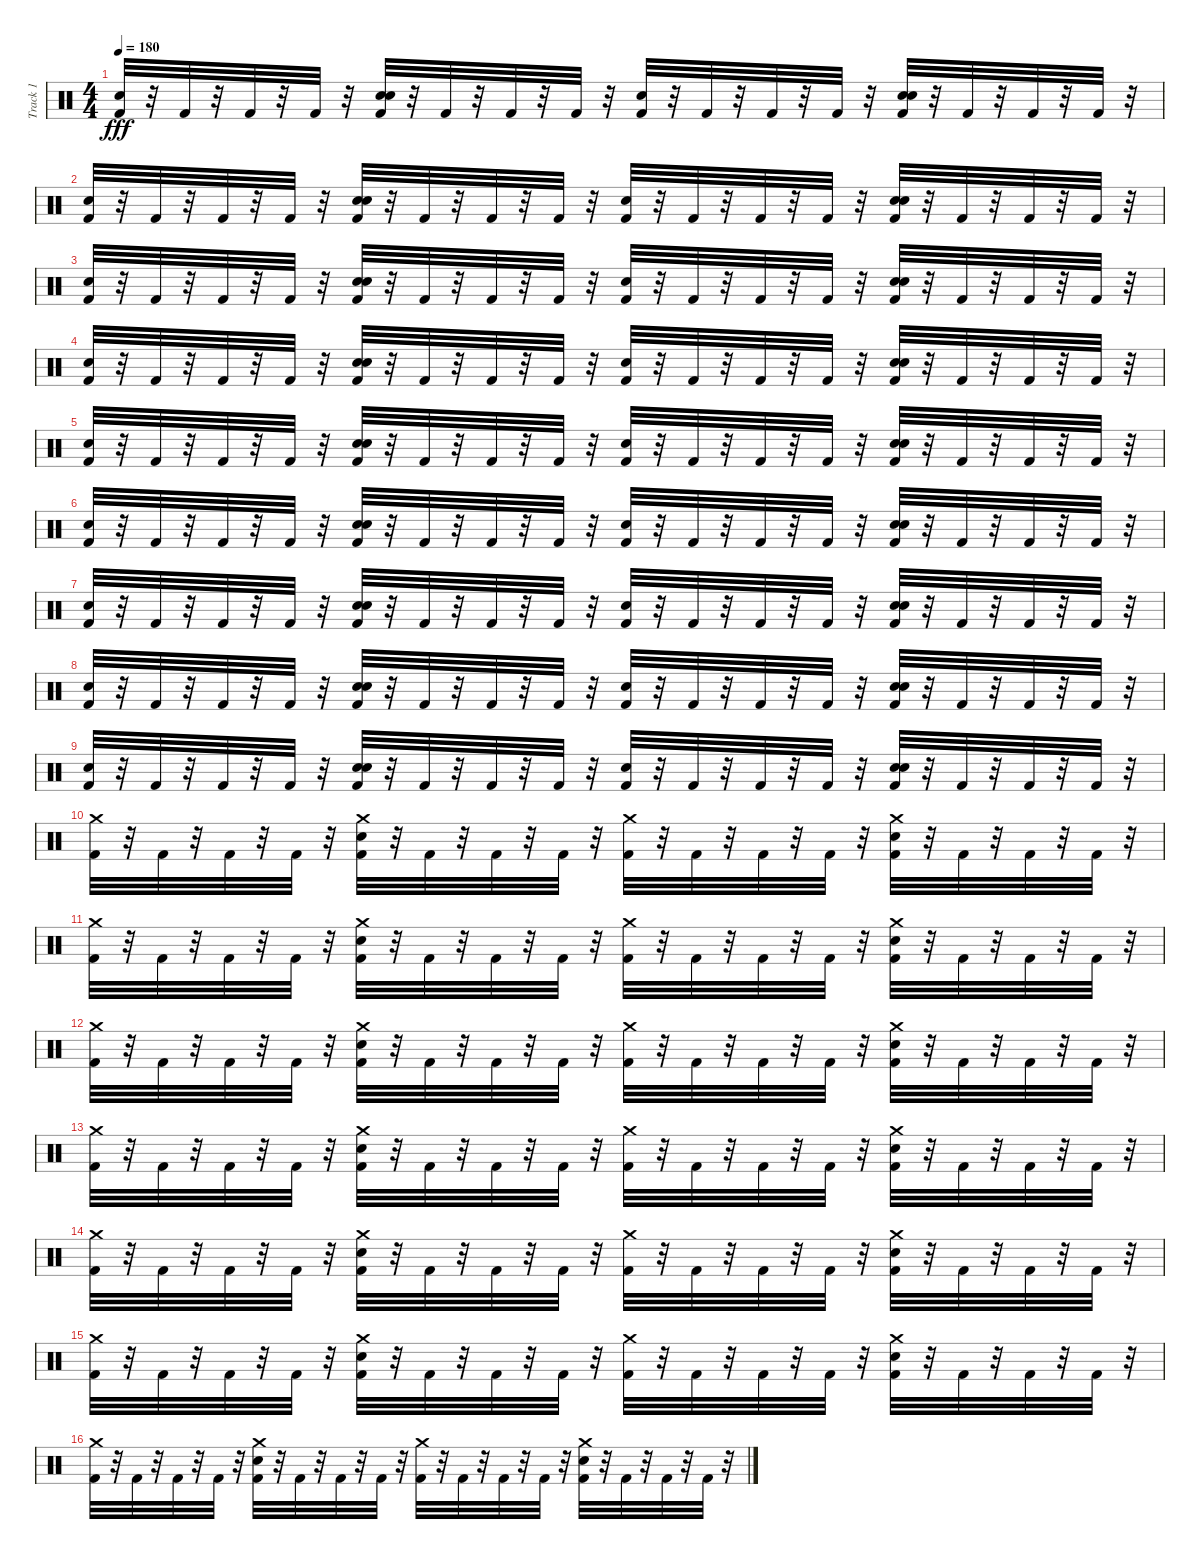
\track ("Track 1" "Track 1") {mute instrument percussion}
\staff {score}
\articulation defaults
\ts (4 4)
\tempo 180
\clef neutral
\ks c
("Kick (hit) 2" "Snare (hit)").32{dy fff} r.32 "Kick (hit) 2".32 r.32 "Kick (hit) 2".32 r.32 "Kick (hit) 2".32 r.32 ("Snare (hit)" "Kick (hit) 2" "Snare (hit) 2").32 r.32 "Kick (hit) 2".32 r.32 "Kick (hit) 2".32 r.32 "Kick (hit) 2".32 r.32 ("Kick (hit) 2" "Snare (hit)").32 r.32 "Kick (hit) 2".32 r.32 "Kick (hit) 2".32 r.32 "Kick (hit) 2".32 r.32 ("Snare (hit)" "Snare (hit) 2" "Kick (hit) 2").32 r.32 "Kick (hit) 2".32 r.32 "Kick (hit) 2".32 r.32 "Kick (hit) 2".32 r.32 |
("Kick (hit) 2" "Snare (hit)").32 r.32 "Kick (hit) 2".32 r.32 "Kick (hit) 2".32 r.32 "Kick (hit) 2".32 r.32 ("Snare (hit)" "Kick (hit) 2" "Snare (hit) 2").32 r.32 "Kick (hit) 2".32 r.32 "Kick (hit) 2".32 r.32 "Kick (hit) 2".32 r.32 ("Kick (hit) 2" "Snare (hit)").32 r.32 "Kick (hit) 2".32 r.32 "Kick (hit) 2".32 r.32 "Kick (hit) 2".32 r.32 ("Snare (hit)" "Kick (hit) 2" "Snare (hit) 2").32 r.32 "Kick (hit) 2".32 r.32 "Kick (hit) 2".32 r.32 "Kick (hit) 2".32 r.32 |
("Kick (hit) 2" "Snare (hit)").32 r.32 "Kick (hit) 2".32 r.32 "Kick (hit) 2".32 r.32 "Kick (hit) 2".32 r.32 ("Snare (hit)" "Kick (hit) 2" "Snare (hit) 2").32 r.32 "Kick (hit) 2".32 r.32 "Kick (hit) 2".32 r.32 "Kick (hit) 2".32 r.32 ("Kick (hit) 2" "Snare (hit)").32 r.32 "Kick (hit) 2".32 r.32 "Kick (hit) 2".32 r.32 "Kick (hit) 2".32 r.32 ("Snare (hit) 2" "Snare (hit)" "Kick (hit) 2").32 r.32 "Kick (hit) 2".32 r.32 "Kick (hit) 2".32 r.32 "Kick (hit) 2".32 r.32 |
("Kick (hit) 2" "Snare (hit)").32 r.32 "Kick (hit) 2".32 r.32 "Kick (hit) 2".32 r.32 "Kick (hit) 2".32 r.32 ("Snare (hit)" "Snare (hit) 2" "Kick (hit) 2").32 r.32 "Kick (hit) 2".32 r.32 "Kick (hit) 2".32 r.32 "Kick (hit) 2".32 r.32 ("Kick (hit) 2" "Snare (hit)").32 r.32 "Kick (hit) 2".32 r.32 "Kick (hit) 2".32 r.32 "Kick (hit) 2".32 r.32 ("Snare (hit) 2" "Snare (hit)" "Kick (hit) 2").32 r.32 "Kick (hit) 2".32 r.32 "Kick (hit) 2".32 r.32 "Kick (hit) 2".32 r.32 |
("Kick (hit) 2" "Snare (hit)").32 r.32 "Kick (hit) 2".32 r.32 "Kick (hit) 2".32 r.32 "Kick (hit) 2".32 r.32 ("Snare (hit)" "Kick (hit) 2" "Snare (hit) 2").32 r.32 "Kick (hit) 2".32 r.32 "Kick (hit) 2".32 r.32 "Kick (hit) 2".32 r.32 ("Kick (hit) 2" "Snare (hit)").32 r.32 "Kick (hit) 2".32 r.32 "Kick (hit) 2".32 r.32 "Kick (hit) 2".32 r.32 ("Snare (hit)" "Snare (hit) 2" "Kick (hit) 2").32 r.32 "Kick (hit) 2".32 r.32 "Kick (hit) 2".32 r.32 "Kick (hit) 2".32 r.32 |
("Kick (hit) 2" "Snare (hit)").32 r.32 "Kick (hit) 2".32 r.32 "Kick (hit) 2".32 r.32 "Kick (hit) 2".32 r.32 ("Snare (hit)" "Kick (hit) 2" "Snare (hit) 2").32 r.32 "Kick (hit) 2".32 r.32 "Kick (hit) 2".32 r.32 "Kick (hit) 2".32 r.32 ("Kick (hit) 2" "Snare (hit)").32 r.32 "Kick (hit) 2".32 r.32 "Kick (hit) 2".32 r.32 "Kick (hit) 2".32 r.32 ("Snare (hit)" "Kick (hit) 2" "Snare (hit) 2").32 r.32 "Kick (hit) 2".32 r.32 "Kick (hit) 2".32 r.32 "Kick (hit) 2".32 r.32 |
("Kick (hit) 2" "Snare (hit)").32 r.32 "Kick (hit) 2".32 r.32 "Kick (hit) 2".32 r.32 "Kick (hit) 2".32 r.32 ("Snare (hit)" "Kick (hit) 2" "Snare (hit) 2").32 r.32 "Kick (hit) 2".32 r.32 "Kick (hit) 2".32 r.32 "Kick (hit) 2".32 r.32 ("Kick (hit) 2" "Snare (hit)").32 r.32 "Kick (hit) 2".32 r.32 "Kick (hit) 2".32 r.32 "Kick (hit) 2".32 r.32 ("Snare (hit) 2" "Snare (hit)" "Kick (hit) 2").32 r.32 "Kick (hit) 2".32 r.32 "Kick (hit) 2".32 r.32 "Kick (hit) 2".32 r.32 |
("Kick (hit) 2" "Snare (hit)").32 r.32 "Kick (hit) 2".32 r.32 "Kick (hit) 2".32 r.32 "Kick (hit) 2".32 r.32 ("Snare (hit)" "Snare (hit) 2" "Kick (hit) 2").32 r.32 "Kick (hit) 2".32 r.32 "Kick (hit) 2".32 r.32 "Kick (hit) 2".32 r.32 ("Kick (hit) 2" "Snare (hit)").32 r.32 "Kick (hit) 2".32 r.32 "Kick (hit) 2".32 r.32 "Kick (hit) 2".32 r.32 ("Snare (hit) 2" "Snare (hit)" "Kick (hit) 2").32 r.32 "Kick (hit) 2".32 r.32 "Kick (hit) 2".32 r.32 "Kick (hit) 2".32 r.32 |
("Kick (hit) 2" "Snare (hit)").32 r.32 "Kick (hit) 2".32 r.32 "Kick (hit) 2".32 r.32 "Kick (hit) 2".32 r.32 ("Snare (hit)" "Kick (hit) 2" "Snare (hit) 2").32 r.32 "Kick (hit) 2".32 r.32 "Kick (hit) 2".32 r.32 "Kick (hit) 2".32 r.32 ("Kick (hit) 2" "Snare (hit)").32 r.32 "Kick (hit) 2".32 r.32 "Kick (hit) 2".32 r.32 "Kick (hit) 2".32 r.32 ("Snare (hit)" "Snare (hit) 2" "Kick (hit) 2").32 r.32 "Kick (hit) 2".32 r.32 "Kick (hit) 2".32 r.32 "Kick (hit) 2".32 r.32 |
("Kick (hit) 2" "Crash medium (hit)").32 r.32 "Kick (hit) 2".32 r.32 "Kick (hit) 2".32 r.32 "Kick (hit) 2".32 r.32 ("Crash medium (hit)" "Kick (hit) 2" "Snare (hit) 2").32 r.32 "Kick (hit) 2".32 r.32 "Kick (hit) 2".32 r.32 "Kick (hit) 2".32 r.32 ("Kick (hit) 2" "Crash medium (hit)").32 r.32 "Kick (hit) 2".32 r.32 "Kick (hit) 2".32 r.32 "Kick (hit) 2".32 r.32 ("Crash medium (hit)" "Kick (hit) 2" "Snare (hit) 2").32 r.32 "Kick (hit) 2".32 r.32 "Kick (hit) 2".32 r.32 "Kick (hit) 2".32 r.32 |
("Kick (hit) 2" "Crash medium (hit)").32 r.32 "Kick (hit) 2".32 r.32 "Kick (hit) 2".32 r.32 "Kick (hit) 2".32 r.32 ("Crash medium (hit)" "Kick (hit) 2" "Snare (hit) 2").32 r.32 "Kick (hit) 2".32 r.32 "Kick (hit) 2".32 r.32 "Kick (hit) 2".32 r.32 ("Kick (hit) 2" "Crash medium (hit)").32 r.32 "Kick (hit) 2".32 r.32 "Kick (hit) 2".32 r.32 "Kick (hit) 2".32 r.32 ("Snare (hit) 2" "Crash medium (hit)" "Kick (hit) 2").32 r.32 "Kick (hit) 2".32 r.32 "Kick (hit) 2".32 r.32 "Kick (hit) 2".32 r.32 |
("Kick (hit) 2" "Crash medium (hit)").32 r.32 "Kick (hit) 2".32 r.32 "Kick (hit) 2".32 r.32 "Kick (hit) 2".32 r.32 ("Crash medium (hit)" "Snare (hit) 2" "Kick (hit) 2").32 r.32 "Kick (hit) 2".32 r.32 "Kick (hit) 2".32 r.32 "Kick (hit) 2".32 r.32 ("Kick (hit) 2" "Crash medium (hit)").32 r.32 "Kick (hit) 2".32 r.32 "Kick (hit) 2".32 r.32 "Kick (hit) 2".32 r.32 ("Snare (hit) 2" "Crash medium (hit)" "Kick (hit) 2").32 r.32 "Kick (hit) 2".32 r.32 "Kick (hit) 2".32 r.32 "Kick (hit) 2".32 r.32 |
("Kick (hit) 2" "Crash medium (hit)").32 r.32 "Kick (hit) 2".32 r.32 "Kick (hit) 2".32 r.32 "Kick (hit) 2".32 r.32 ("Crash medium (hit)" "Kick (hit) 2" "Snare (hit) 2").32 r.32 "Kick (hit) 2".32 r.32 "Kick (hit) 2".32 r.32 "Kick (hit) 2".32 r.32 ("Kick (hit) 2" "Crash medium (hit)").32 r.32 "Kick (hit) 2".32 r.32 "Kick (hit) 2".32 r.32 "Kick (hit) 2".32 r.32 ("Crash medium (hit)" "Snare (hit) 2" "Kick (hit) 2").32 r.32 "Kick (hit) 2".32 r.32 "Kick (hit) 2".32 r.32 "Kick (hit) 2".32 r.32 |
("Kick (hit) 2" "Crash medium (hit)").32 r.32 "Kick (hit) 2".32 r.32 "Kick (hit) 2".32 r.32 "Kick (hit) 2".32 r.32 ("Crash medium (hit)" "Kick (hit) 2" "Snare (hit) 2").32 r.32 "Kick (hit) 2".32 r.32 "Kick (hit) 2".32 r.32 "Kick (hit) 2".32 r.32 ("Kick (hit) 2" "Crash medium (hit)").32 r.32 "Kick (hit) 2".32 r.32 "Kick (hit) 2".32 r.32 "Kick (hit) 2".32 r.32 ("Crash medium (hit)" "Kick (hit) 2" "Snare (hit) 2").32 r.32 "Kick (hit) 2".32 r.32 "Kick (hit) 2".32 r.32 "Kick (hit) 2".32 r.32 |
("Kick (hit) 2" "Crash medium (hit)").32 r.32 "Kick (hit) 2".32 r.32 "Kick (hit) 2".32 r.32 "Kick (hit) 2".32 r.32 ("Crash medium (hit)" "Kick (hit) 2" "Snare (hit) 2").32 r.32 "Kick (hit) 2".32 r.32 "Kick (hit) 2".32 r.32 "Kick (hit) 2".32 r.32 ("Kick (hit) 2" "Crash medium (hit)").32 r.32 "Kick (hit) 2".32 r.32 "Kick (hit) 2".32 r.32 "Kick (hit) 2".32 r.32 ("Snare (hit) 2" "Crash medium (hit)" "Kick (hit) 2").32 r.32 "Kick (hit) 2".32 r.32 "Kick (hit) 2".32 r.32 "Kick (hit) 2".32 r.32 |
("Kick (hit) 2" "Crash medium (hit)").32 r.32 "Kick (hit) 2".32 r.32 "Kick (hit) 2".32 r.32 "Kick (hit) 2".32 r.32 ("Crash medium (hit)" "Snare (hit) 2" "Kick (hit) 2").32 r.32 "Kick (hit) 2".32 r.32 "Kick (hit) 2".32 r.32 "Kick (hit) 2".32 r.32 ("Kick (hit) 2" "Crash medium (hit)").32 r.32 "Kick (hit) 2".32 r.32 "Kick (hit) 2".32 r.32 "Kick (hit) 2".32 r.32 ("Snare (hit) 2" "Crash medium (hit)" "Kick (hit) 2").32 r.32 "Kick (hit) 2".32 r.32 "Kick (hit) 2".32 r.32 "Kick (hit) 2".32 r.32
